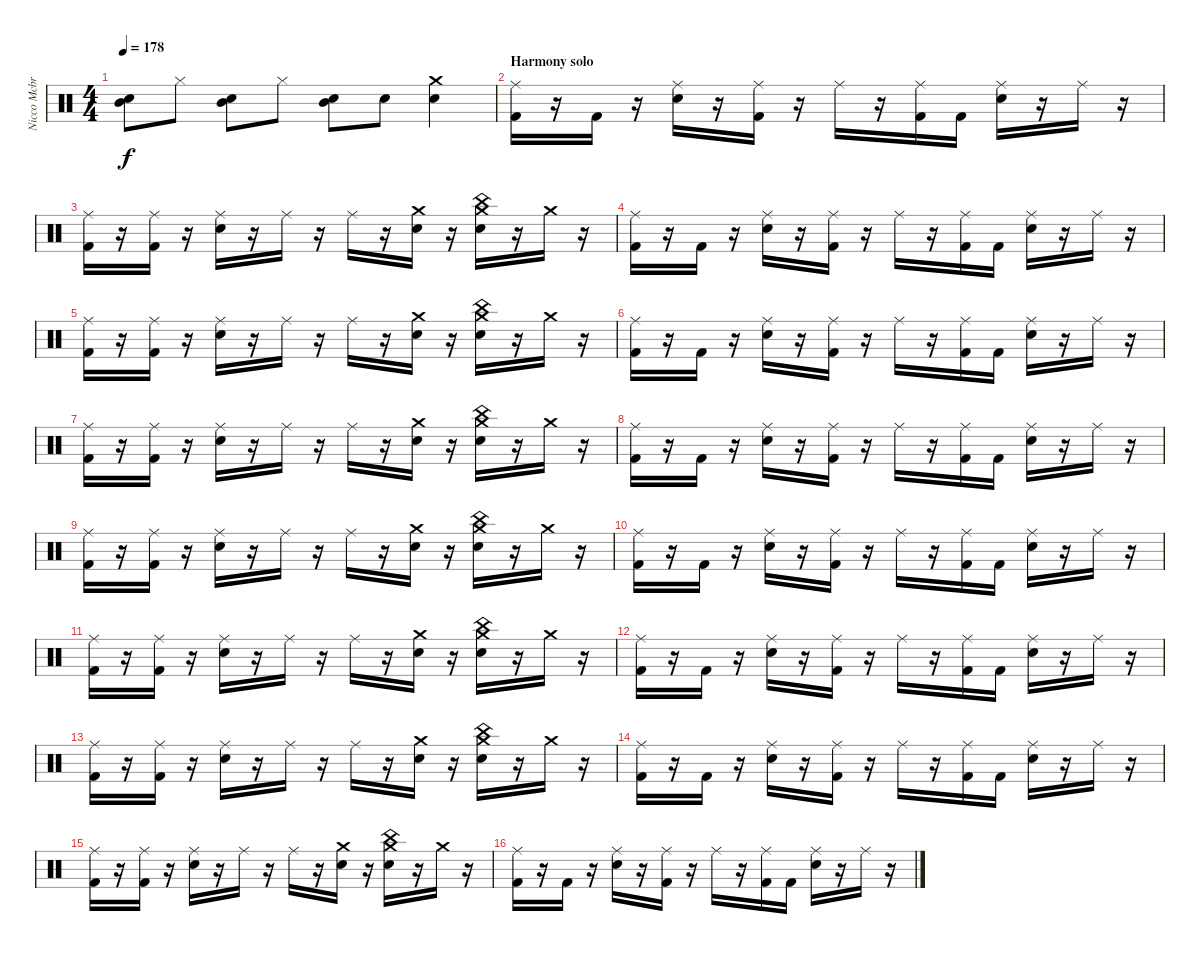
\track ("Nicco Mcbrian - Drums" "Nicco Mcbr") {instrument percussion}
\staff {score}
\articulation defaults
\ts (4 4)
\tempo 178
\clef neutral
\ks c
("Mid Tom (hit)" "Snare (hit) 2").8{dy f} "Hi-Hat (closed)".8 ("Mid Tom (hit)" "Snare (hit) 2").8 "Hi-Hat (closed)".8 ("Mid Tom (hit)" "Snare (hit) 2").8 "Snare (hit) 2".8 ("Crash medium (hit)" "Snare (hit) 2").4 |
\section ("" "Harmony solo")
("Ride (middle)" "Kick (hit) 2").16 r.16 "Kick (hit) 2".16 r.16 ("Ride (middle)" "Snare (hit) 2").16 r.16 ("Ride (middle)" "Kick (hit) 2").16 r.16 "Ride (middle)".16 r.16 ("Ride (middle)" "Kick (hit) 2").16 "Kick (hit) 2".16 ("Ride (middle)" "Snare (hit) 2").16 r.16 "Ride (middle)".16 r.16 |
("Ride (middle)" "Kick (hit) 2").16 r.16 ("Ride (middle)" "Kick (hit) 2").16 r.16 ("Ride (middle)" "Snare (hit) 2").16 r.16 "Ride (middle)".16 r.16 "Ride (middle)".16 r.16 ("Crash medium (hit)" "Snare (hit) 2").16 r.16 ("Crash medium (hit)" "China (hit)" "Snare (hit) 2").16 r.16 "Crash medium (hit)".16 r.16 |
("Ride (middle)" "Kick (hit) 2").16 r.16 "Kick (hit) 2".16 r.16 ("Ride (middle)" "Snare (hit) 2").16 r.16 ("Ride (middle)" "Kick (hit) 2").16 r.16 "Ride (middle)".16 r.16 ("Ride (middle)" "Kick (hit) 2").16 "Kick (hit) 2".16 ("Ride (middle)" "Snare (hit) 2").16 r.16 "Ride (middle)".16 r.16 |
("Ride (middle)" "Kick (hit) 2").16 r.16 ("Ride (middle)" "Kick (hit) 2").16 r.16 ("Ride (middle)" "Snare (hit) 2").16 r.16 "Ride (middle)".16 r.16 "Ride (middle)".16 r.16 ("Crash medium (hit)" "Snare (hit) 2").16 r.16 ("Crash medium (hit)" "China (hit)" "Snare (hit) 2").16 r.16 "Crash medium (hit)".16 r.16 |
("Ride (middle)" "Kick (hit) 2").16 r.16 "Kick (hit) 2".16 r.16 ("Ride (middle)" "Snare (hit) 2").16 r.16 ("Ride (middle)" "Kick (hit) 2").16 r.16 "Ride (middle)".16 r.16 ("Ride (middle)" "Kick (hit) 2").16 "Kick (hit) 2".16 ("Ride (middle)" "Snare (hit) 2").16 r.16 "Ride (middle)".16 r.16 |
("Ride (middle)" "Kick (hit) 2").16 r.16 ("Ride (middle)" "Kick (hit) 2").16 r.16 ("Ride (middle)" "Snare (hit) 2").16 r.16 "Ride (middle)".16 r.16 "Ride (middle)".16 r.16 ("Crash medium (hit)" "Snare (hit) 2").16 r.16 ("Crash medium (hit)" "China (hit)" "Snare (hit) 2").16 r.16 "Crash medium (hit)".16 r.16 |
("Ride (middle)" "Kick (hit) 2").16 r.16 "Kick (hit) 2".16 r.16 ("Ride (middle)" "Snare (hit) 2").16 r.16 ("Ride (middle)" "Kick (hit) 2").16 r.16 "Ride (middle)".16 r.16 ("Ride (middle)" "Kick (hit) 2").16 "Kick (hit) 2".16 ("Ride (middle)" "Snare (hit) 2").16 r.16 "Ride (middle)".16 r.16 |
("Ride (middle)" "Kick (hit) 2").16 r.16 ("Ride (middle)" "Kick (hit) 2").16 r.16 ("Ride (middle)" "Snare (hit) 2").16 r.16 "Ride (middle)".16 r.16 "Ride (middle)".16 r.16 ("Crash medium (hit)" "Snare (hit) 2").16 r.16 ("Crash medium (hit)" "China (hit)" "Snare (hit) 2").16 r.16 "Crash medium (hit)".16 r.16 |
("Ride (middle)" "Kick (hit) 2").16 r.16 "Kick (hit) 2".16 r.16 ("Ride (middle)" "Snare (hit) 2").16 r.16 ("Ride (middle)" "Kick (hit) 2").16 r.16 "Ride (middle)".16 r.16 ("Ride (middle)" "Kick (hit) 2").16 "Kick (hit) 2".16 ("Ride (middle)" "Snare (hit) 2").16 r.16 "Ride (middle)".16 r.16 |
("Ride (middle)" "Kick (hit) 2").16 r.16 ("Ride (middle)" "Kick (hit) 2").16 r.16 ("Ride (middle)" "Snare (hit) 2").16 r.16 "Ride (middle)".16 r.16 "Ride (middle)".16 r.16 ("Crash medium (hit)" "Snare (hit) 2").16 r.16 ("Crash medium (hit)" "China (hit)" "Snare (hit) 2").16 r.16 "Crash medium (hit)".16 r.16 |
("Ride (middle)" "Kick (hit) 2").16 r.16 "Kick (hit) 2".16 r.16 ("Ride (middle)" "Snare (hit) 2").16 r.16 ("Ride (middle)" "Kick (hit) 2").16 r.16 "Ride (middle)".16 r.16 ("Ride (middle)" "Kick (hit) 2").16 "Kick (hit) 2".16 ("Ride (middle)" "Snare (hit) 2").16 r.16 "Ride (middle)".16 r.16 |
("Ride (middle)" "Kick (hit) 2").16 r.16 ("Ride (middle)" "Kick (hit) 2").16 r.16 ("Ride (middle)" "Snare (hit) 2").16 r.16 "Ride (middle)".16 r.16 "Ride (middle)".16 r.16 ("Crash medium (hit)" "Snare (hit) 2").16 r.16 ("Crash medium (hit)" "China (hit)" "Snare (hit) 2").16 r.16 "Crash medium (hit)".16 r.16 |
("Ride (middle)" "Kick (hit) 2").16 r.16 "Kick (hit) 2".16 r.16 ("Ride (middle)" "Snare (hit) 2").16 r.16 ("Ride (middle)" "Kick (hit) 2").16 r.16 "Ride (middle)".16 r.16 ("Ride (middle)" "Kick (hit) 2").16 "Kick (hit) 2".16 ("Ride (middle)" "Snare (hit) 2").16 r.16 "Ride (middle)".16 r.16 |
("Ride (middle)" "Kick (hit) 2").16 r.16 ("Ride (middle)" "Kick (hit) 2").16 r.16 ("Ride (middle)" "Snare (hit) 2").16 r.16 "Ride (middle)".16 r.16 "Ride (middle)".16 r.16 ("Crash medium (hit)" "Snare (hit) 2").16 r.16 ("Crash medium (hit)" "China (hit)" "Snare (hit) 2").16 r.16 "Crash medium (hit)".16 r.16 |
("Ride (middle)" "Kick (hit) 2").16 r.16 "Kick (hit) 2".16 r.16 ("Ride (middle)" "Snare (hit) 2").16 r.16 ("Ride (middle)" "Kick (hit) 2").16 r.16 "Ride (middle)".16 r.16 ("Ride (middle)" "Kick (hit) 2").16 "Kick (hit) 2".16 ("Ride (middle)" "Snare (hit) 2").16 r.16 "Ride (middle)".16 r.16
